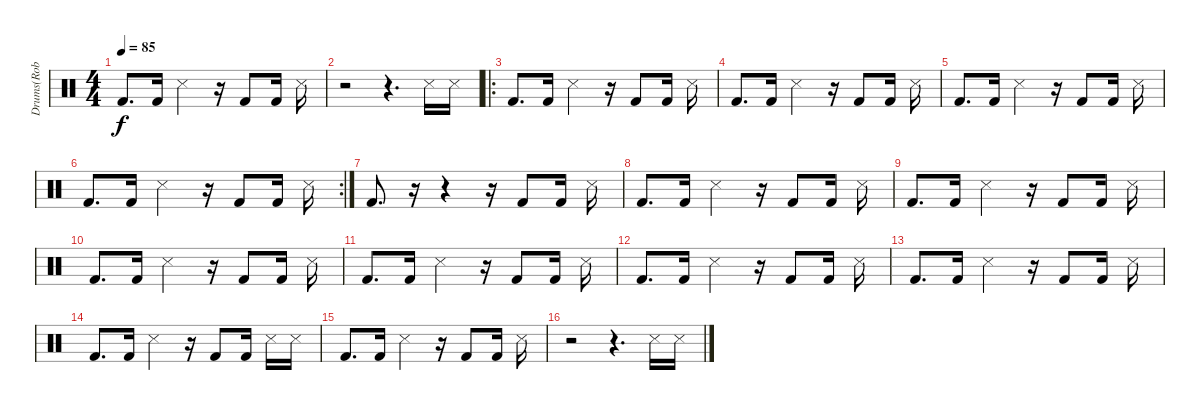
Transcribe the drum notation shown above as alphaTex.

\track ("Drums(Rob Bourdon)(Right hand)" "Drums(Rob ") {instrument percussion}
\staff {score}
\articulation defaults
\ts (4 4)
\tempo 85
\clef neutral
\ks c "Kick (hit) 2".8{d dy f} "Kick (hit) 2".16 "Snare (side stick) 3".4
r.16 "Kick (hit) 2".8 "Kick (hit) 2".16 "Snare (side stick) 3".16 |
r.2 r.4{d} "Snare (side stick) 3".16 "Snare (side stick) 3".16 |
\ro "Kick (hit) 2".8{d volume 16} "Kick (hit) 2".16 "Snare (side stick) 3".4
r.16 "Kick (hit) 2".8 "Kick (hit) 2".16 "Snare (side stick) 3".16 |
"Kick (hit) 2".8{d} "Kick (hit) 2".16 "Snare (side stick) 3".4 r.16 "Kick (hit) 2".8 "Kick (hit) 2".16 "Snare (side stick) 3".16 |
"Kick (hit) 2".8{d} "Kick (hit) 2".16 "Snare (side stick) 3".4 r.16 "Kick (hit) 2".8 "Kick (hit) 2".16 "Snare (side stick) 3".16 |
\rc 2 "Kick (hit) 2".8{d} "Kick (hit) 2".16 "Snare (side stick) 3".4
r.16 "Kick (hit) 2".8 "Kick (hit) 2".16 "Snare (side stick) 3".16 |
"Kick (hit) 2".8{d volume 16} r.16{volume 9} r.4 r.16 "Kick (hit) 2".8 "Kick (hit) 2".16 "Snare (side stick) 3".16 |
"Kick (hit) 2".8{d} "Kick (hit) 2".16 "Snare (side stick) 3".4 r.16 "Kick (hit) 2".8 "Kick (hit) 2".16 "Snare (side stick) 3".16 |
"Kick (hit) 2".8{d} "Kick (hit) 2".16 "Snare (side stick) 3".4 r.16 "Kick (hit) 2".8 "Kick (hit) 2".16 "Snare (side stick) 3".16 |
"Kick (hit) 2".8{d} "Kick (hit) 2".16 "Snare (side stick) 3".4 r.16 "Kick (hit) 2".8 "Kick (hit) 2".16 "Snare (side stick) 3".16 |
"Kick (hit) 2".8{d} "Kick (hit) 2".16 "Snare (side stick) 3".4 r.16 "Kick (hit) 2".8 "Kick (hit) 2".16 "Snare (side stick) 3".16 |
"Kick (hit) 2".8{d} "Kick (hit) 2".16 "Snare (side stick) 3".4 r.16 "Kick (hit) 2".8 "Kick (hit) 2".16 "Snare (side stick) 3".16 |
"Kick (hit) 2".8{d} "Kick (hit) 2".16 "Snare (side stick) 3".4 r.16 "Kick (hit) 2".8 "Kick (hit) 2".16 "Snare (side stick) 3".16 |
"Kick (hit) 2".8{d} "Kick (hit) 2".16 "Snare (side stick) 3".4 r.16 "Kick (hit) 2".8 "Kick (hit) 2".16 "Snare (side stick) 3".16 "Snare (side stick) 3".16 |
"Kick (hit) 2".8{d} "Kick (hit) 2".16 "Snare (side stick) 3".4 r.16 "Kick (hit) 2".8 "Kick (hit) 2".16 "Snare (side stick) 3".16 |
r.2 r.4{d} "Snare (side stick) 3".16 "Snare (side stick) 3".16
